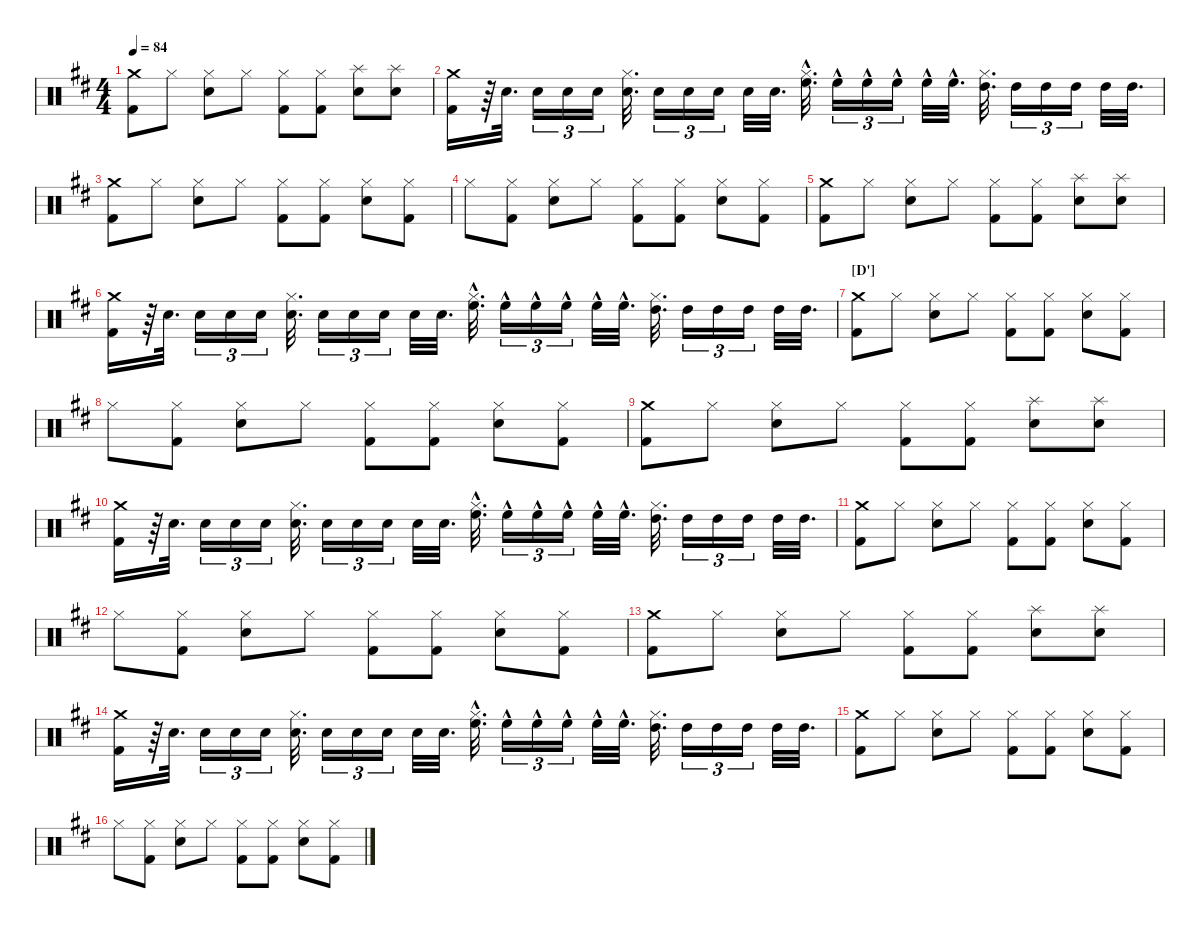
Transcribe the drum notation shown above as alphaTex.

\hideDynamics
\bracketExtendMode nobrackets
\singleTrackTrackNamePolicy hidden
\multiTrackTrackNamePolicy hidden
\otherSystemsTrackNameOrientation horizontal
\track ("Drumkit" "Drums") {instrument percussion}
\staff {score}
\articulation defaults
\ts (4 4)
\tempo 84
\clef neutral
\ks d
("Kick (hit) 2"{acc forcenatural} "Crash medium (hit)"{acc forcenatural}).8{dy f beam Down} "Hi-Hat (closed)"{acc forcenatural}.8{beam Down} ("Snare (hit) 2"{acc forcenatural} "Hi-Hat (closed)"{acc forcenatural}).8{beam Down} "Hi-Hat (closed)"{acc forcenatural}.8{beam Down} ("Kick (hit) 2"{acc forcenatural} "Hi-Hat (closed)"{acc forcenatural}).8{beam Down} ("Kick (hit) 2"{acc forcenatural} "Hi-Hat (closed)"{acc forcenatural}).8{beam Down} ("Snare (hit) 2"{acc forcenatural} "Splash (hit)"{acc forcenatural}).8{beam Down} ("Snare (hit) 2"{acc forcenatural} "Splash (hit)"{acc forcenatural}).8{beam Down} |
("Kick (hit) 2"{acc forcenatural} "Crash medium (hit)"{acc forcenatural}).16{beam Down} r.64{beam Down} "Snare (hit) 2"{acc forcenatural}.32{d beam Down} "Snare (hit) 2"{acc forcenatural}.16{tu (3 2) beam Down} "Snare (hit) 2"{acc forcenatural}.16{tu (3 2) beam Down} "Snare (hit) 2"{acc forcenatural}.16{tu (3 2) beam Down} ("Snare (hit) 2"{acc forcenatural} "Hi-Hat (closed)"{acc forcenatural}).32{d beam Down} "Snare (hit) 2"{acc forcenatural}.16{tu (3 2) beam Down} "Snare (hit) 2"{acc forcenatural}.16{tu (3 2) beam Down} "Snare (hit) 2"{acc forcenatural}.16{tu (3 2) beam Down} "Snare (hit) 2"{acc forcenatural}.32{beam Down} "Snare (hit) 2"{acc forcenatural}.32{d beam Down} ("High Floor Tom (hit)"{hac acc forcenatural} "Hi-Hat (closed)"{hac acc forcenatural}).32{d beam Down} "High Floor Tom (hit)"{hac acc forcenatural}.16{tu (3 2) beam Down} "High Floor Tom (hit)"{hac acc forcenatural}.16{tu (3 2) beam Down} "High Floor Tom (hit)"{hac acc forcenatural}.16{tu (3 2) beam Down} "High Floor Tom (hit)"{hac acc forcenatural}.32{beam Down} "High Floor Tom (hit)"{hac acc forcenatural}.32{d beam Down} ("Hi-Hat (closed)"{acc forcenatural} "High Tom (hit)"{acc forcenatural}).32{d beam Down} "High Tom (hit)"{acc forcenatural}.16{tu (3 2) beam Down} "High Tom (hit)"{acc forcenatural}.16{tu (3 2) beam Down} "High Tom (hit)"{acc forcenatural}.16{tu (3 2) beam Down} "High Tom (hit)"{acc forcenatural}.32{beam Down} "High Tom (hit)"{acc forcenatural}.32{d beam Down} |
("Kick (hit) 2"{acc forcenatural} "Crash medium (hit)"{acc forcenatural}).8{beam Down} "Hi-Hat (closed)"{acc forcenatural}.8{beam Down} ("Snare (hit) 2"{acc forcenatural} "Hi-Hat (closed)"{acc forcenatural}).8{beam Down} "Hi-Hat (closed)"{acc forcenatural}.8{beam Down} ("Kick (hit) 2"{acc forcenatural} "Hi-Hat (closed)"{acc forcenatural}).8{beam Down} ("Kick (hit) 2"{acc forcenatural} "Hi-Hat (closed)"{acc forcenatural}).8{beam Down} ("Snare (hit) 2"{acc forcenatural} "Hi-Hat (closed)"{acc forcenatural}).8{beam Down} ("Kick (hit) 2"{acc forcenatural} "Hi-Hat (closed)"{acc forcenatural}).8{beam Down} |
"Hi-Hat (closed)"{acc forcenatural}.8{beam Down} ("Kick (hit) 2"{acc forcenatural} "Hi-Hat (closed)"{acc forcenatural}).8{beam Down} ("Snare (hit) 2"{acc forcenatural} "Hi-Hat (closed)"{acc forcenatural}).8{beam Down} "Hi-Hat (closed)"{acc forcenatural}.8{beam Down} ("Kick (hit) 2"{acc forcenatural} "Hi-Hat (closed)"{acc forcenatural}).8{beam Down} ("Kick (hit) 2"{acc forcenatural} "Hi-Hat (closed)"{acc forcenatural}).8{beam Down} ("Snare (hit) 2"{acc forcenatural} "Hi-Hat (closed)"{acc forcenatural}).8{beam Down} ("Kick (hit) 2"{acc forcenatural} "Hi-Hat (closed)"{acc forcenatural}).8{beam Down} |
("Kick (hit) 2"{acc forcenatural} "Crash medium (hit)"{acc forcenatural}).8{beam Down} "Hi-Hat (closed)"{acc forcenatural}.8{beam Down} ("Snare (hit) 2"{acc forcenatural} "Hi-Hat (closed)"{acc forcenatural}).8{beam Down} "Hi-Hat (closed)"{acc forcenatural}.8{beam Down} ("Kick (hit) 2"{acc forcenatural} "Hi-Hat (closed)"{acc forcenatural}).8{beam Down} ("Kick (hit) 2"{acc forcenatural} "Hi-Hat (closed)"{acc forcenatural}).8{beam Down} ("Snare (hit) 2"{acc forcenatural} "Splash (hit)"{acc forcenatural}).8{beam Down} ("Snare (hit) 2"{acc forcenatural} "Splash (hit)"{acc forcenatural}).8{beam Down} |
("Kick (hit) 2"{acc forcenatural} "Crash medium (hit)"{acc forcenatural}).16{beam Down} r.64{beam Down} "Snare (hit) 2"{acc forcenatural}.32{d beam Down} "Snare (hit) 2"{acc forcenatural}.16{tu (3 2) beam Down} "Snare (hit) 2"{acc forcenatural}.16{tu (3 2) beam Down} "Snare (hit) 2"{acc forcenatural}.16{tu (3 2) beam Down} ("Snare (hit) 2"{acc forcenatural} "Hi-Hat (closed)"{acc forcenatural}).32{d beam Down} "Snare (hit) 2"{acc forcenatural}.16{tu (3 2) beam Down} "Snare (hit) 2"{acc forcenatural}.16{tu (3 2) beam Down} "Snare (hit) 2"{acc forcenatural}.16{tu (3 2) beam Down} "Snare (hit) 2"{acc forcenatural}.32{beam Down} "Snare (hit) 2"{acc forcenatural}.32{d beam Down} ("High Floor Tom (hit)"{hac acc forcenatural} "Hi-Hat (closed)"{hac acc forcenatural}).32{d beam Down} "High Floor Tom (hit)"{hac acc forcenatural}.16{tu (3 2) beam Down} "High Floor Tom (hit)"{hac acc forcenatural}.16{tu (3 2) beam Down} "High Floor Tom (hit)"{hac acc forcenatural}.16{tu (3 2) beam Down} "High Floor Tom (hit)"{hac acc forcenatural}.32{beam Down} "High Floor Tom (hit)"{hac acc forcenatural}.32{d beam Down} ("Hi-Hat (closed)"{acc forcenatural} "High Tom (hit)"{acc forcenatural}).32{d beam Down} "High Tom (hit)"{acc forcenatural}.16{tu (3 2) beam Down} "High Tom (hit)"{acc forcenatural}.16{tu (3 2) beam Down} "High Tom (hit)"{acc forcenatural}.16{tu (3 2) beam Down} "High Tom (hit)"{acc forcenatural}.32{beam Down} "High Tom (hit)"{acc forcenatural}.32{d beam Down} |
\section ("D'" "")
("Kick (hit) 2"{acc forcenatural} "Crash medium (hit)"{acc forcenatural}).8{beam Down} "Hi-Hat (closed)"{acc forcenatural}.8{beam Down} ("Snare (hit) 2"{acc forcenatural} "Hi-Hat (closed)"{acc forcenatural}).8{beam Down} "Hi-Hat (closed)"{acc forcenatural}.8{beam Down} ("Kick (hit) 2"{acc forcenatural} "Hi-Hat (closed)"{acc forcenatural}).8{beam Down} ("Kick (hit) 2"{acc forcenatural} "Hi-Hat (closed)"{acc forcenatural}).8{beam Down} ("Snare (hit) 2"{acc forcenatural} "Hi-Hat (closed)"{acc forcenatural}).8{beam Down} ("Kick (hit) 2"{acc forcenatural} "Hi-Hat (closed)"{acc forcenatural}).8{beam Down} |
"Hi-Hat (closed)"{acc forcenatural}.8{beam Down} ("Kick (hit) 2"{acc forcenatural} "Hi-Hat (closed)"{acc forcenatural}).8{beam Down} ("Snare (hit) 2"{acc forcenatural} "Hi-Hat (closed)"{acc forcenatural}).8{beam Down} "Hi-Hat (closed)"{acc forcenatural}.8{beam Down} ("Kick (hit) 2"{acc forcenatural} "Hi-Hat (closed)"{acc forcenatural}).8{beam Down} ("Kick (hit) 2"{acc forcenatural} "Hi-Hat (closed)"{acc forcenatural}).8{beam Down} ("Snare (hit) 2"{acc forcenatural} "Hi-Hat (closed)"{acc forcenatural}).8{beam Down} ("Kick (hit) 2"{acc forcenatural} "Hi-Hat (closed)"{acc forcenatural}).8{beam Down} |
("Kick (hit) 2"{acc forcenatural} "Crash medium (hit)"{acc forcenatural}).8{beam Down} "Hi-Hat (closed)"{acc forcenatural}.8{beam Down} ("Snare (hit) 2"{acc forcenatural} "Hi-Hat (closed)"{acc forcenatural}).8{beam Down} "Hi-Hat (closed)"{acc forcenatural}.8{beam Down} ("Kick (hit) 2"{acc forcenatural} "Hi-Hat (closed)"{acc forcenatural}).8{beam Down} ("Kick (hit) 2"{acc forcenatural} "Hi-Hat (closed)"{acc forcenatural}).8{beam Down} ("Snare (hit) 2"{acc forcenatural} "Splash (hit)"{acc forcenatural}).8{beam Down} ("Snare (hit) 2"{acc forcenatural} "Splash (hit)"{acc forcenatural}).8{beam Down} |
("Kick (hit) 2"{acc forcenatural} "Crash medium (hit)"{acc forcenatural}).16{beam Down} r.64{beam Down} "Snare (hit) 2"{acc forcenatural}.32{d beam Down} "Snare (hit) 2"{acc forcenatural}.16{tu (3 2) beam Down} "Snare (hit) 2"{acc forcenatural}.16{tu (3 2) beam Down} "Snare (hit) 2"{acc forcenatural}.16{tu (3 2) beam Down} ("Snare (hit) 2"{acc forcenatural} "Hi-Hat (closed)"{acc forcenatural}).32{d beam Down} "Snare (hit) 2"{acc forcenatural}.16{tu (3 2) beam Down} "Snare (hit) 2"{acc forcenatural}.16{tu (3 2) beam Down} "Snare (hit) 2"{acc forcenatural}.16{tu (3 2) beam Down} "Snare (hit) 2"{acc forcenatural}.32{beam Down} "Snare (hit) 2"{acc forcenatural}.32{d beam Down} ("High Floor Tom (hit)"{hac acc forcenatural} "Hi-Hat (closed)"{hac acc forcenatural}).32{d beam Down} "High Floor Tom (hit)"{hac acc forcenatural}.16{tu (3 2) beam Down} "High Floor Tom (hit)"{hac acc forcenatural}.16{tu (3 2) beam Down} "High Floor Tom (hit)"{hac acc forcenatural}.16{tu (3 2) beam Down} "High Floor Tom (hit)"{hac acc forcenatural}.32{beam Down} "High Floor Tom (hit)"{hac acc forcenatural}.32{d beam Down} ("Hi-Hat (closed)"{acc forcenatural} "High Tom (hit)"{acc forcenatural}).32{d beam Down} "High Tom (hit)"{acc forcenatural}.16{tu (3 2) beam Down} "High Tom (hit)"{acc forcenatural}.16{tu (3 2) beam Down} "High Tom (hit)"{acc forcenatural}.16{tu (3 2) beam Down} "High Tom (hit)"{acc forcenatural}.32{beam Down} "High Tom (hit)"{acc forcenatural}.32{d beam Down} |
("Kick (hit) 2"{acc forcenatural} "Crash medium (hit)"{acc forcenatural}).8{beam Down} "Hi-Hat (closed)"{acc forcenatural}.8{beam Down} ("Snare (hit) 2"{acc forcenatural} "Hi-Hat (closed)"{acc forcenatural}).8{beam Down} "Hi-Hat (closed)"{acc forcenatural}.8{beam Down} ("Kick (hit) 2"{acc forcenatural} "Hi-Hat (closed)"{acc forcenatural}).8{beam Down} ("Kick (hit) 2"{acc forcenatural} "Hi-Hat (closed)"{acc forcenatural}).8{beam Down} ("Snare (hit) 2"{acc forcenatural} "Hi-Hat (closed)"{acc forcenatural}).8{beam Down} ("Kick (hit) 2"{acc forcenatural} "Hi-Hat (closed)"{acc forcenatural}).8{beam Down} |
"Hi-Hat (closed)"{acc forcenatural}.8{beam Down} ("Kick (hit) 2"{acc forcenatural} "Hi-Hat (closed)"{acc forcenatural}).8{beam Down} ("Snare (hit) 2"{acc forcenatural} "Hi-Hat (closed)"{acc forcenatural}).8{beam Down} "Hi-Hat (closed)"{acc forcenatural}.8{beam Down} ("Kick (hit) 2"{acc forcenatural} "Hi-Hat (closed)"{acc forcenatural}).8{beam Down} ("Kick (hit) 2"{acc forcenatural} "Hi-Hat (closed)"{acc forcenatural}).8{beam Down} ("Snare (hit) 2"{acc forcenatural} "Hi-Hat (closed)"{acc forcenatural}).8{beam Down} ("Kick (hit) 2"{acc forcenatural} "Hi-Hat (closed)"{acc forcenatural}).8{beam Down} |
("Kick (hit) 2"{acc forcenatural} "Crash medium (hit)"{acc forcenatural}).8{beam Down} "Hi-Hat (closed)"{acc forcenatural}.8{beam Down} ("Snare (hit) 2"{acc forcenatural} "Hi-Hat (closed)"{acc forcenatural}).8{beam Down} "Hi-Hat (closed)"{acc forcenatural}.8{beam Down} ("Kick (hit) 2"{acc forcenatural} "Hi-Hat (closed)"{acc forcenatural}).8{beam Down} ("Kick (hit) 2"{acc forcenatural} "Hi-Hat (closed)"{acc forcenatural}).8{beam Down} ("Snare (hit) 2"{acc forcenatural} "Splash (hit)"{acc forcenatural}).8{beam Down} ("Snare (hit) 2"{acc forcenatural} "Splash (hit)"{acc forcenatural}).8{beam Down} |
("Kick (hit) 2"{acc forcenatural} "Crash medium (hit)"{acc forcenatural}).16{beam Down} r.64{beam Down} "Snare (hit) 2"{acc forcenatural}.32{d beam Down} "Snare (hit) 2"{acc forcenatural}.16{tu (3 2) beam Down} "Snare (hit) 2"{acc forcenatural}.16{tu (3 2) beam Down} "Snare (hit) 2"{acc forcenatural}.16{tu (3 2) beam Down} ("Snare (hit) 2"{acc forcenatural} "Hi-Hat (closed)"{acc forcenatural}).32{d beam Down} "Snare (hit) 2"{acc forcenatural}.16{tu (3 2) beam Down} "Snare (hit) 2"{acc forcenatural}.16{tu (3 2) beam Down} "Snare (hit) 2"{acc forcenatural}.16{tu (3 2) beam Down} "Snare (hit) 2"{acc forcenatural}.32{beam Down} "Snare (hit) 2"{acc forcenatural}.32{d beam Down} ("High Floor Tom (hit)"{hac acc forcenatural} "Hi-Hat (closed)"{hac acc forcenatural}).32{d beam Down} "High Floor Tom (hit)"{hac acc forcenatural}.16{tu (3 2) beam Down} "High Floor Tom (hit)"{hac acc forcenatural}.16{tu (3 2) beam Down} "High Floor Tom (hit)"{hac acc forcenatural}.16{tu (3 2) beam Down} "High Floor Tom (hit)"{hac acc forcenatural}.32{beam Down} "High Floor Tom (hit)"{hac acc forcenatural}.32{d beam Down} ("Hi-Hat (closed)"{acc forcenatural} "High Tom (hit)"{acc forcenatural}).32{d beam Down} "High Tom (hit)"{acc forcenatural}.16{tu (3 2) beam Down} "High Tom (hit)"{acc forcenatural}.16{tu (3 2) beam Down} "High Tom (hit)"{acc forcenatural}.16{tu (3 2) beam Down} "High Tom (hit)"{acc forcenatural}.32{beam Down} "High Tom (hit)"{acc forcenatural}.32{d beam Down} |
("Kick (hit) 2"{acc forcenatural} "Crash medium (hit)"{acc forcenatural}).8{beam Down} "Hi-Hat (closed)"{acc forcenatural}.8{beam Down} ("Snare (hit) 2"{acc forcenatural} "Hi-Hat (closed)"{acc forcenatural}).8{beam Down} "Hi-Hat (closed)"{acc forcenatural}.8{beam Down} ("Kick (hit) 2"{acc forcenatural} "Hi-Hat (closed)"{acc forcenatural}).8{beam Down} ("Kick (hit) 2"{acc forcenatural} "Hi-Hat (closed)"{acc forcenatural}).8{beam Down} ("Snare (hit) 2"{acc forcenatural} "Hi-Hat (closed)"{acc forcenatural}).8{beam Down} ("Kick (hit) 2"{acc forcenatural} "Hi-Hat (closed)"{acc forcenatural}).8{beam Down} |
"Hi-Hat (closed)"{acc forcenatural}.8{beam Down} ("Kick (hit) 2"{acc forcenatural} "Hi-Hat (closed)"{acc forcenatural}).8{beam Down} ("Snare (hit) 2"{acc forcenatural} "Hi-Hat (closed)"{acc forcenatural}).8{beam Down} "Hi-Hat (closed)"{acc forcenatural}.8{beam Down} ("Kick (hit) 2"{acc forcenatural} "Hi-Hat (closed)"{acc forcenatural}).8{beam Down} ("Kick (hit) 2"{acc forcenatural} "Hi-Hat (closed)"{acc forcenatural}).8{beam Down} ("Snare (hit) 2"{acc forcenatural} "Hi-Hat (closed)"{acc forcenatural}).8{beam Down} ("Kick (hit) 2"{acc forcenatural} "Hi-Hat (closed)"{acc forcenatural}).8{beam Down}
